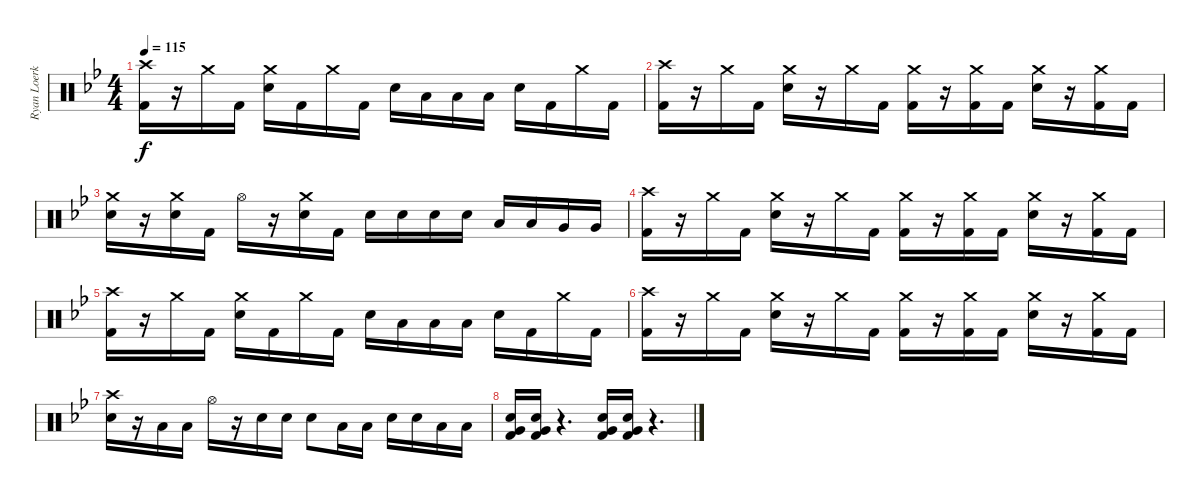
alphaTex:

\track ("Ryan Loerke" "Ryan Loerk") {instrument percussion}
\staff {score}
\articulation defaults
\ts (4 4)
\tempo 115
\clef neutral
\ks gminor
("Crash high (hit)" "Kick (hit) 2").16{dy f} r.16 "Crash medium (hit)".16 "Kick (hit) 2".16 ("Crash medium (hit)" "Snare (hit) 2").16 "Kick (hit) 2".16 "Crash medium (hit)".16 "Kick (hit) 2".16 "Snare (hit) 2".16 "Low Tom (hit)".16 "Low Tom (hit)".16 "Low Tom (hit)".16 "Snare (hit) 2".16 "Kick (hit) 2".16 "Crash medium (hit)".16 "Kick (hit) 2".16 |
("Crash high (hit)" "Kick (hit) 2").16 r.16 "Crash medium (hit)".16 "Kick (hit) 2".16 ("Crash medium (hit)" "Snare (hit) 2").16 r.16 "Crash medium (hit)".16 "Kick (hit) 2".16 ("Crash medium (hit)" "Kick (hit) 2").16 r.16 ("Crash medium (hit)" "Kick (hit) 2").16 "Kick (hit) 2".16 ("Crash medium (hit)" "Snare (hit) 2").16 r.16 ("Crash medium (hit)" "Kick (hit) 2").16 "Kick (hit) 2".16 |
("Crash medium (hit)" "Snare (hit) 2").16 r.16 ("Crash medium (hit)" "Snare (hit) 2").16 "Kick (hit) 2".16 "Hi-Hat (open)".16 r.16 ("Crash medium (hit)" "Snare (hit) 2").16 "Kick (hit) 2".16 "Snare (hit) 2".16 "Snare (hit) 2".16 "Snare (hit) 2".16 "Snare (hit) 2".16 "Low Tom (hit)".16 "Low Tom (hit)".16 "Very Low Tom (hit)".16 "Very Low Tom (hit)".16 |
("Crash high (hit)" "Kick (hit) 2").16 r.16 "Crash medium (hit)".16 "Kick (hit) 2".16 ("Crash medium (hit)" "Snare (hit) 2").16 r.16 "Crash medium (hit)".16 "Kick (hit) 2".16 ("Crash medium (hit)" "Kick (hit) 2").16 r.16 ("Crash medium (hit)" "Kick (hit) 2").16 "Kick (hit) 2".16 ("Crash medium (hit)" "Snare (hit) 2").16 r.16 ("Crash medium (hit)" "Kick (hit) 2").16 "Kick (hit) 2".16 |
("Crash high (hit)" "Kick (hit) 2").16 r.16 "Crash medium (hit)".16 "Kick (hit) 2".16 ("Crash medium (hit)" "Snare (hit) 2").16 "Kick (hit) 2".16 "Crash medium (hit)".16 "Kick (hit) 2".16 "Snare (hit) 2".16 "Low Tom (hit)".16 "Low Tom (hit)".16 "Low Tom (hit)".16 "Snare (hit) 2".16 "Kick (hit) 2".16 "Crash medium (hit)".16 "Kick (hit) 2".16 |
("Crash high (hit)" "Kick (hit) 2").16 r.16 "Crash medium (hit)".16 "Kick (hit) 2".16 ("Crash medium (hit)" "Snare (hit) 2").16 r.16 "Crash medium (hit)".16 "Kick (hit) 2".16 ("Crash medium (hit)" "Kick (hit) 2").16 r.16 ("Crash medium (hit)" "Kick (hit) 2").16 "Kick (hit) 2".16 ("Crash medium (hit)" "Snare (hit) 2").16 r.16 ("Crash medium (hit)" "Kick (hit) 2").16 "Kick (hit) 2".16 |
("Crash high (hit)" "Snare (hit) 2").16 r.16 "Low Tom (hit)".16 "Low Tom (hit)".16 "Hi-Hat (open)".16 r.16 "Snare (hit) 2".16 "Snare (hit) 2".16 "Snare (hit) 2".8 "Low Tom (hit)".16 "Low Tom (hit)".16 "Snare (hit) 2".16 "Snare (hit) 2".16 "Low Tom (hit)".16 "Low Tom (hit)".16 |
("Snare (hit) 2" "Very Low Tom (hit)" "Kick (hit) 2").16 ("Snare (hit) 2" "Very Low Tom (hit)" "Kick (hit) 2").16 r.4{d} ("Snare (hit) 2" "Very Low Tom (hit)" "Kick (hit) 2").16 ("Snare (hit) 2" "Very Low Tom (hit)" "Kick (hit) 2").16 r.4{d}
